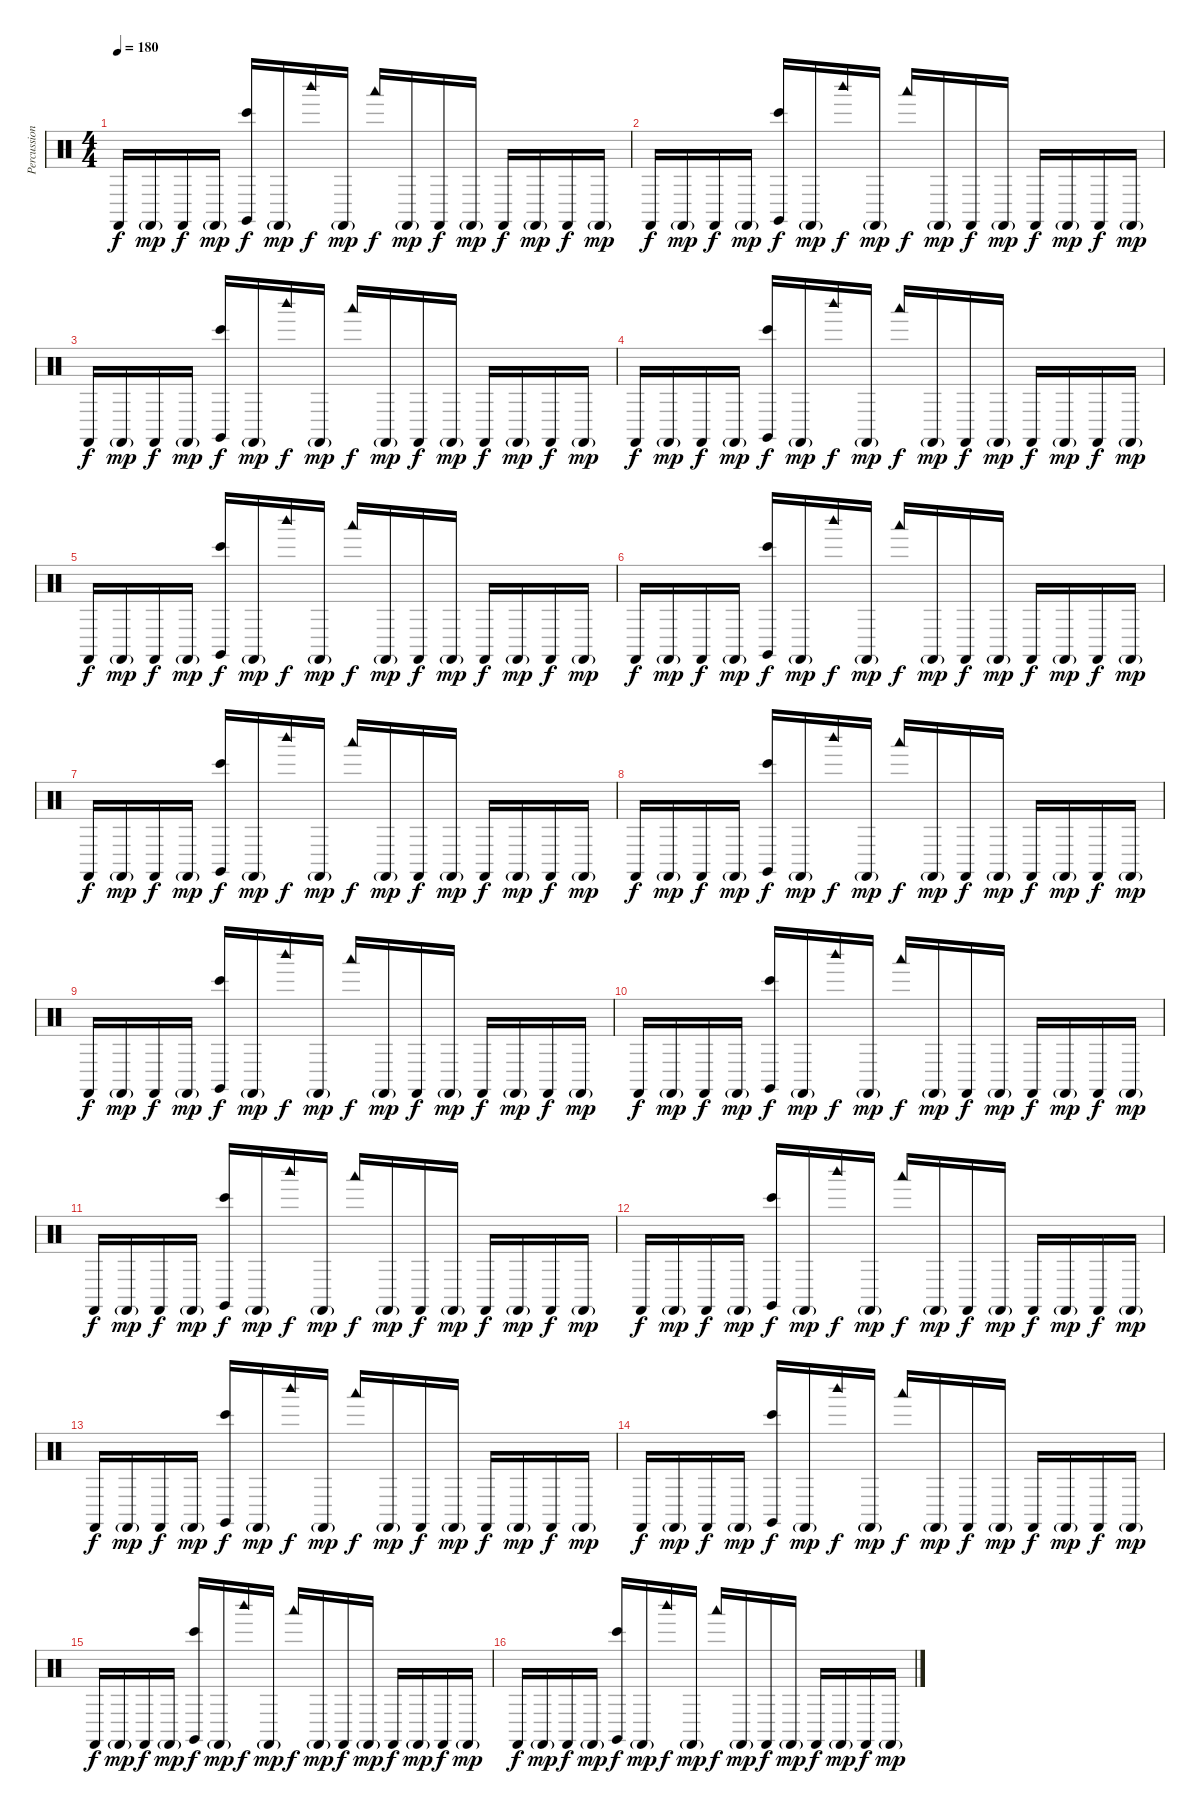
\track ("Percussions" "Percussion") {instrument percussion}
\staff {score}
\articulation defaults
\ts (4 4)
\tempo 180
\clef neutral
\ks c "Castanets (hit)".16{dy f} "Castanets (hit)"{g}.16{dy mp} "Castanets (hit)".16{dy f} "Castanets (hit)"{g}.16{dy mp}
("Bongo High (hit)" "Claves (hit)").16{dy f} "Castanets (hit)"{g}.16{dy mp} "Woodblock high (hit)".16{dy f} "Castanets (hit)"{g}.16{dy mp} "Woodblock low (hit)".16{dy f} "Castanets (hit)"{g}.16{dy mp} "Castanets (hit)".16{dy f} "Castanets (hit)"{g}.16{dy mp} "Castanets (hit)".16{dy f} "Castanets (hit)"{g}.16{dy mp} "Castanets (hit)".16{dy f} "Castanets (hit)"{g}.16{dy mp} |
"Castanets (hit)".16{dy f} "Castanets (hit)"{g}.16{dy mp} "Castanets (hit)".16{dy f} "Castanets (hit)"{g}.16{dy mp} ("Bongo High (hit)" "Claves (hit)").16{dy f} "Castanets (hit)"{g}.16{dy mp} "Woodblock high (hit)".16{dy f} "Castanets (hit)"{g}.16{dy mp} "Woodblock low (hit)".16{dy f} "Castanets (hit)"{g}.16{dy mp} "Castanets (hit)".16{dy f} "Castanets (hit)"{g}.16{dy mp} "Castanets (hit)".16{dy f} "Castanets (hit)"{g}.16{dy mp} "Castanets (hit)".16{dy f} "Castanets (hit)"{g}.16{dy mp} |
"Castanets (hit)".16{dy f} "Castanets (hit)"{g}.16{dy mp} "Castanets (hit)".16{dy f} "Castanets (hit)"{g}.16{dy mp} ("Bongo High (hit)" "Claves (hit)").16{dy f} "Castanets (hit)"{g}.16{dy mp} "Woodblock high (hit)".16{dy f} "Castanets (hit)"{g}.16{dy mp} "Woodblock low (hit)".16{dy f} "Castanets (hit)"{g}.16{dy mp} "Castanets (hit)".16{dy f} "Castanets (hit)"{g}.16{dy mp} "Castanets (hit)".16{dy f} "Castanets (hit)"{g}.16{dy mp} "Castanets (hit)".16{dy f} "Castanets (hit)"{g}.16{dy mp} |
"Castanets (hit)".16{dy f} "Castanets (hit)"{g}.16{dy mp} "Castanets (hit)".16{dy f} "Castanets (hit)"{g}.16{dy mp} ("Bongo High (hit)" "Claves (hit)").16{dy f} "Castanets (hit)"{g}.16{dy mp} "Woodblock high (hit)".16{dy f} "Castanets (hit)"{g}.16{dy mp} "Woodblock low (hit)".16{dy f} "Castanets (hit)"{g}.16{dy mp} "Castanets (hit)".16{dy f} "Castanets (hit)"{g}.16{dy mp} "Castanets (hit)".16{dy f} "Castanets (hit)"{g}.16{dy mp} "Castanets (hit)".16{dy f} "Castanets (hit)"{g}.16{dy mp} |
"Castanets (hit)".16{dy f} "Castanets (hit)"{g}.16{dy mp} "Castanets (hit)".16{dy f} "Castanets (hit)"{g}.16{dy mp} ("Bongo High (hit)" "Claves (hit)").16{dy f} "Castanets (hit)"{g}.16{dy mp} "Woodblock high (hit)".16{dy f} "Castanets (hit)"{g}.16{dy mp} "Woodblock low (hit)".16{dy f} "Castanets (hit)"{g}.16{dy mp} "Castanets (hit)".16{dy f} "Castanets (hit)"{g}.16{dy mp} "Castanets (hit)".16{dy f} "Castanets (hit)"{g}.16{dy mp} "Castanets (hit)".16{dy f} "Castanets (hit)"{g}.16{dy mp} |
"Castanets (hit)".16{dy f} "Castanets (hit)"{g}.16{dy mp} "Castanets (hit)".16{dy f} "Castanets (hit)"{g}.16{dy mp} ("Bongo High (hit)" "Claves (hit)").16{dy f} "Castanets (hit)"{g}.16{dy mp} "Woodblock high (hit)".16{dy f} "Castanets (hit)"{g}.16{dy mp} "Woodblock low (hit)".16{dy f} "Castanets (hit)"{g}.16{dy mp} "Castanets (hit)".16{dy f} "Castanets (hit)"{g}.16{dy mp} "Castanets (hit)".16{dy f} "Castanets (hit)"{g}.16{dy mp} "Castanets (hit)".16{dy f} "Castanets (hit)"{g}.16{dy mp} |
"Castanets (hit)".16{dy f} "Castanets (hit)"{g}.16{dy mp} "Castanets (hit)".16{dy f} "Castanets (hit)"{g}.16{dy mp} ("Bongo High (hit)" "Claves (hit)").16{dy f} "Castanets (hit)"{g}.16{dy mp} "Woodblock high (hit)".16{dy f} "Castanets (hit)"{g}.16{dy mp} "Woodblock low (hit)".16{dy f} "Castanets (hit)"{g}.16{dy mp} "Castanets (hit)".16{dy f} "Castanets (hit)"{g}.16{dy mp} "Castanets (hit)".16{dy f} "Castanets (hit)"{g}.16{dy mp} "Castanets (hit)".16{dy f} "Castanets (hit)"{g}.16{dy mp} |
"Castanets (hit)".16{dy f} "Castanets (hit)"{g}.16{dy mp} "Castanets (hit)".16{dy f} "Castanets (hit)"{g}.16{dy mp} ("Bongo High (hit)" "Claves (hit)").16{dy f} "Castanets (hit)"{g}.16{dy mp} "Woodblock high (hit)".16{dy f} "Castanets (hit)"{g}.16{dy mp} "Woodblock low (hit)".16{dy f} "Castanets (hit)"{g}.16{dy mp} "Castanets (hit)".16{dy f} "Castanets (hit)"{g}.16{dy mp} "Castanets (hit)".16{dy f} "Castanets (hit)"{g}.16{dy mp} "Castanets (hit)".16{dy f} "Castanets (hit)"{g}.16{dy mp} |
"Castanets (hit)".16{dy f} "Castanets (hit)"{g}.16{dy mp} "Castanets (hit)".16{dy f} "Castanets (hit)"{g}.16{dy mp} ("Bongo High (hit)" "Claves (hit)").16{dy f} "Castanets (hit)"{g}.16{dy mp} "Woodblock high (hit)".16{dy f} "Castanets (hit)"{g}.16{dy mp} "Woodblock low (hit)".16{dy f} "Castanets (hit)"{g}.16{dy mp} "Castanets (hit)".16{dy f} "Castanets (hit)"{g}.16{dy mp} "Castanets (hit)".16{dy f} "Castanets (hit)"{g}.16{dy mp} "Castanets (hit)".16{dy f} "Castanets (hit)"{g}.16{dy mp} |
"Castanets (hit)".16{dy f} "Castanets (hit)"{g}.16{dy mp} "Castanets (hit)".16{dy f} "Castanets (hit)"{g}.16{dy mp} ("Bongo High (hit)" "Claves (hit)").16{dy f} "Castanets (hit)"{g}.16{dy mp} "Woodblock high (hit)".16{dy f} "Castanets (hit)"{g}.16{dy mp} "Woodblock low (hit)".16{dy f} "Castanets (hit)"{g}.16{dy mp} "Castanets (hit)".16{dy f} "Castanets (hit)"{g}.16{dy mp} "Castanets (hit)".16{dy f} "Castanets (hit)"{g}.16{dy mp} "Castanets (hit)".16{dy f} "Castanets (hit)"{g}.16{dy mp} |
"Castanets (hit)".16{dy f} "Castanets (hit)"{g}.16{dy mp} "Castanets (hit)".16{dy f} "Castanets (hit)"{g}.16{dy mp} ("Bongo High (hit)" "Claves (hit)").16{dy f} "Castanets (hit)"{g}.16{dy mp} "Woodblock high (hit)".16{dy f} "Castanets (hit)"{g}.16{dy mp} "Woodblock low (hit)".16{dy f} "Castanets (hit)"{g}.16{dy mp} "Castanets (hit)".16{dy f} "Castanets (hit)"{g}.16{dy mp} "Castanets (hit)".16{dy f} "Castanets (hit)"{g}.16{dy mp} "Castanets (hit)".16{dy f} "Castanets (hit)"{g}.16{dy mp} |
"Castanets (hit)".16{dy f} "Castanets (hit)"{g}.16{dy mp} "Castanets (hit)".16{dy f} "Castanets (hit)"{g}.16{dy mp} ("Bongo High (hit)" "Claves (hit)").16{dy f} "Castanets (hit)"{g}.16{dy mp} "Woodblock high (hit)".16{dy f} "Castanets (hit)"{g}.16{dy mp} "Woodblock low (hit)".16{dy f} "Castanets (hit)"{g}.16{dy mp} "Castanets (hit)".16{dy f} "Castanets (hit)"{g}.16{dy mp} "Castanets (hit)".16{dy f} "Castanets (hit)"{g}.16{dy mp} "Castanets (hit)".16{dy f} "Castanets (hit)"{g}.16{dy mp} |
"Castanets (hit)".16{dy f} "Castanets (hit)"{g}.16{dy mp} "Castanets (hit)".16{dy f} "Castanets (hit)"{g}.16{dy mp} ("Bongo High (hit)" "Claves (hit)").16{dy f} "Castanets (hit)"{g}.16{dy mp} "Woodblock high (hit)".16{dy f} "Castanets (hit)"{g}.16{dy mp} "Woodblock low (hit)".16{dy f} "Castanets (hit)"{g}.16{dy mp} "Castanets (hit)".16{dy f} "Castanets (hit)"{g}.16{dy mp} "Castanets (hit)".16{dy f} "Castanets (hit)"{g}.16{dy mp} "Castanets (hit)".16{dy f} "Castanets (hit)"{g}.16{dy mp} |
"Castanets (hit)".16{dy f} "Castanets (hit)"{g}.16{dy mp} "Castanets (hit)".16{dy f} "Castanets (hit)"{g}.16{dy mp} ("Bongo High (hit)" "Claves (hit)").16{dy f} "Castanets (hit)"{g}.16{dy mp} "Woodblock high (hit)".16{dy f} "Castanets (hit)"{g}.16{dy mp} "Woodblock low (hit)".16{dy f} "Castanets (hit)"{g}.16{dy mp} "Castanets (hit)".16{dy f} "Castanets (hit)"{g}.16{dy mp} "Castanets (hit)".16{dy f} "Castanets (hit)"{g}.16{dy mp} "Castanets (hit)".16{dy f} "Castanets (hit)"{g}.16{dy mp} |
"Castanets (hit)".16{dy f} "Castanets (hit)"{g}.16{dy mp} "Castanets (hit)".16{dy f} "Castanets (hit)"{g}.16{dy mp} ("Bongo High (hit)" "Claves (hit)").16{dy f} "Castanets (hit)"{g}.16{dy mp} "Woodblock high (hit)".16{dy f} "Castanets (hit)"{g}.16{dy mp} "Woodblock low (hit)".16{dy f} "Castanets (hit)"{g}.16{dy mp} "Castanets (hit)".16{dy f} "Castanets (hit)"{g}.16{dy mp} "Castanets (hit)".16{dy f} "Castanets (hit)"{g}.16{dy mp} "Castanets (hit)".16{dy f} "Castanets (hit)"{g}.16{dy mp} |
"Castanets (hit)".16{dy f} "Castanets (hit)"{g}.16{dy mp} "Castanets (hit)".16{dy f} "Castanets (hit)"{g}.16{dy mp} ("Bongo High (hit)" "Claves (hit)").16{dy f} "Castanets (hit)"{g}.16{dy mp} "Woodblock high (hit)".16{dy f} "Castanets (hit)"{g}.16{dy mp} "Woodblock low (hit)".16{dy f} "Castanets (hit)"{g}.16{dy mp} "Castanets (hit)".16{dy f} "Castanets (hit)"{g}.16{dy mp} "Castanets (hit)".16{dy f} "Castanets (hit)"{g}.16{dy mp} "Castanets (hit)".16{dy f} "Castanets (hit)"{g}.16{dy mp}
